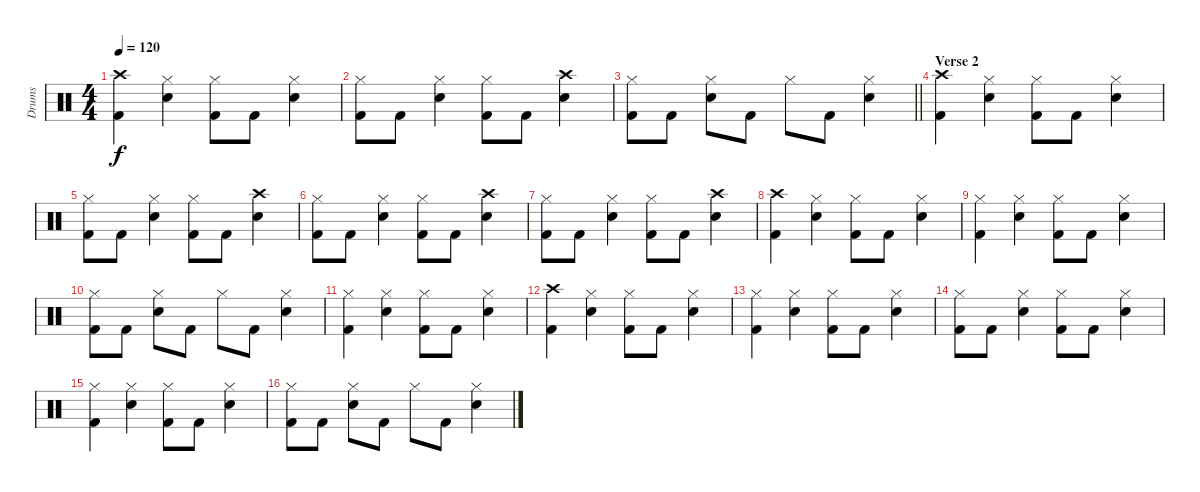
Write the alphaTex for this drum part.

\track ("Drums" "Drums") {instrument percussion}
\staff {score}
\articulation defaults
\ts (4 4)
\tempo 120
\clef neutral
\ks c
("Crash high (hit)" "Kick (hit) 2").4{dy f} ("Hi-Hat (closed)" "Snare (hit) 2").4 ("Hi-Hat (closed)" "Kick (hit) 2").8 "Kick (hit) 2".8 ("Hi-Hat (closed)" "Snare (hit) 2").4 |
("Hi-Hat (closed)" "Kick (hit) 2").8 "Kick (hit) 2".8 ("Hi-Hat (closed)" "Snare (hit) 2").4 ("Hi-Hat (closed)" "Kick (hit) 2").8 "Kick (hit) 2".8 ("Crash high (hit)" "Snare (hit) 2").4 |
\barLineRight lightlight
("Hi-Hat (closed)" "Kick (hit) 2").8 "Kick (hit) 2".8 ("Hi-Hat (closed)" "Snare (hit) 2").8 "Kick (hit) 2".8 "Hi-Hat (closed)".8 "Kick (hit) 2".8 ("Hi-Hat (closed)" "Snare (hit) 2").4 |
\section ("" "Verse 2")
("Crash high (hit)" "Kick (hit) 2").4 ("Hi-Hat (closed)" "Snare (hit) 2").4 ("Hi-Hat (closed)" "Kick (hit) 2").8 "Kick (hit) 2".8 ("Hi-Hat (closed)" "Snare (hit) 2").4 |
("Hi-Hat (closed)" "Kick (hit) 2").8 "Kick (hit) 2".8 ("Hi-Hat (closed)" "Snare (hit) 2").4 ("Hi-Hat (closed)" "Kick (hit) 2").8 "Kick (hit) 2".8 ("Crash high (hit)" "Snare (hit) 2").4 |
("Hi-Hat (closed)" "Kick (hit) 2").8 "Kick (hit) 2".8 ("Hi-Hat (closed)" "Snare (hit) 2").4 ("Hi-Hat (closed)" "Kick (hit) 2").8 "Kick (hit) 2".8 ("Crash high (hit)" "Snare (hit) 2").4 |
("Hi-Hat (closed)" "Kick (hit) 2").8 "Kick (hit) 2".8 ("Hi-Hat (closed)" "Snare (hit) 2").4 ("Hi-Hat (closed)" "Kick (hit) 2").8 "Kick (hit) 2".8 ("Crash high (hit)" "Snare (hit) 2").4 |
("Crash high (hit)" "Kick (hit) 2").4 ("Hi-Hat (closed)" "Snare (hit) 2").4 ("Hi-Hat (closed)" "Kick (hit) 2").8 "Kick (hit) 2".8 ("Hi-Hat (closed)" "Snare (hit) 2").4 |
("Hi-Hat (closed)" "Kick (hit) 2").4 ("Hi-Hat (closed)" "Snare (hit) 2").4 ("Hi-Hat (closed)" "Kick (hit) 2").8 "Kick (hit) 2".8 ("Hi-Hat (closed)" "Snare (hit) 2").4 |
("Hi-Hat (closed)" "Kick (hit) 2").8 "Kick (hit) 2".8 ("Hi-Hat (closed)" "Snare (hit) 2").8 "Kick (hit) 2".8 "Hi-Hat (closed)".8 "Kick (hit) 2".8 ("Hi-Hat (closed)" "Snare (hit) 2").4 |
("Hi-Hat (closed)" "Kick (hit) 2").4 ("Hi-Hat (closed)" "Snare (hit) 2").4 ("Hi-Hat (closed)" "Kick (hit) 2").8 "Kick (hit) 2".8 ("Hi-Hat (closed)" "Snare (hit) 2").4 |
("Crash high (hit)" "Kick (hit) 2").4 ("Hi-Hat (closed)" "Snare (hit) 2").4 ("Hi-Hat (closed)" "Kick (hit) 2").8 "Kick (hit) 2".8 ("Hi-Hat (closed)" "Snare (hit) 2").4 |
("Hi-Hat (closed)" "Kick (hit) 2").4 ("Hi-Hat (closed)" "Snare (hit) 2").4 ("Hi-Hat (closed)" "Kick (hit) 2").8 "Kick (hit) 2".8 ("Hi-Hat (closed)" "Snare (hit) 2").4 |
("Hi-Hat (closed)" "Kick (hit) 2").8 "Kick (hit) 2".8 ("Hi-Hat (closed)" "Snare (hit) 2").4 ("Hi-Hat (closed)" "Kick (hit) 2").8 "Kick (hit) 2".8 ("Hi-Hat (closed)" "Snare (hit) 2").4 |
("Hi-Hat (closed)" "Kick (hit) 2").4 ("Hi-Hat (closed)" "Snare (hit) 2").4 ("Hi-Hat (closed)" "Kick (hit) 2").8 "Kick (hit) 2".8 ("Hi-Hat (closed)" "Snare (hit) 2").4 |
("Hi-Hat (closed)" "Kick (hit) 2").8 "Kick (hit) 2".8 ("Hi-Hat (closed)" "Snare (hit) 2").8 "Kick (hit) 2".8 "Hi-Hat (closed)".8 "Kick (hit) 2".8 ("Hi-Hat (closed)" "Snare (hit) 2").4
